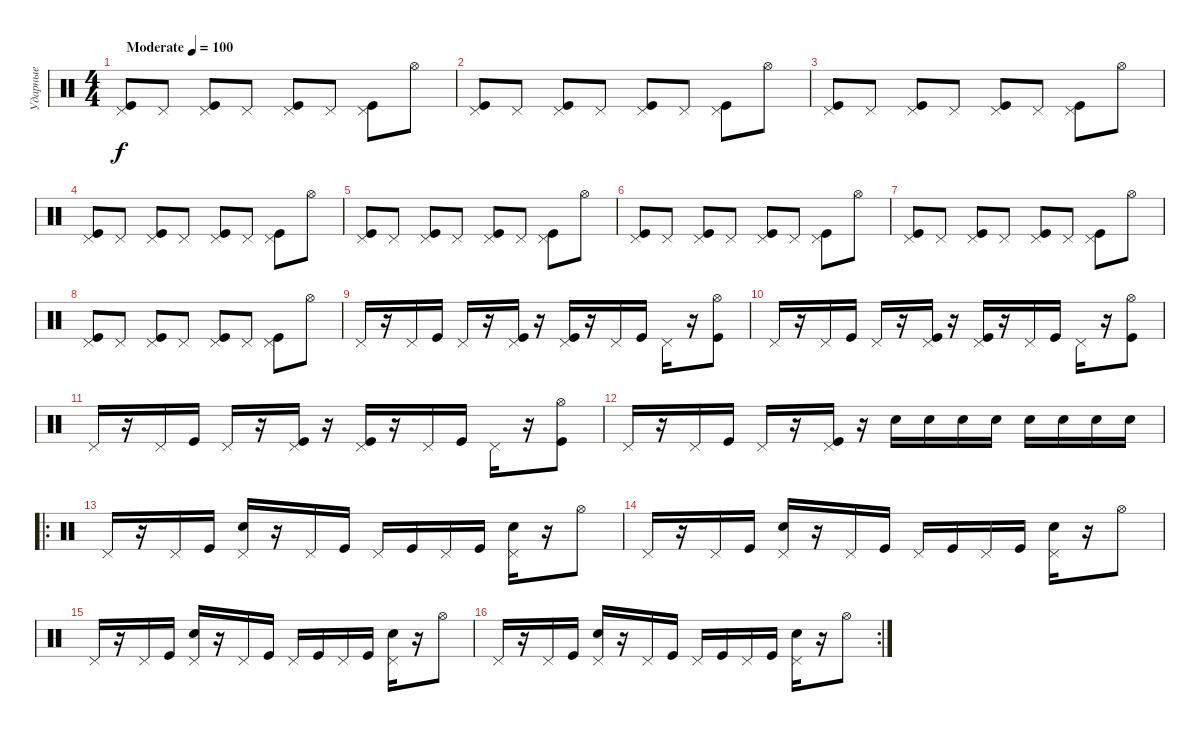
\track ("Ударные" "Ударные") {instrument percussion}
\staff {score}
\articulation defaults
\ts (4 4)
\tempo (100 "Moderate")
\clef neutral
\ks c
("Kick (hit)" "Pedal Hi-Hat (hit)").8{dy f} "Pedal Hi-Hat (hit)".8 ("Kick (hit)" "Pedal Hi-Hat (hit)").8 "Pedal Hi-Hat (hit)".8 ("Kick (hit)" "Pedal Hi-Hat (hit)").8 "Pedal Hi-Hat (hit)".8 ("Kick (hit)" "Pedal Hi-Hat (hit)").8 "Hi-Hat (open)".8 |
("Kick (hit)" "Pedal Hi-Hat (hit)").8 "Pedal Hi-Hat (hit)".8 ("Kick (hit)" "Pedal Hi-Hat (hit)").8 "Pedal Hi-Hat (hit)".8 ("Kick (hit)" "Pedal Hi-Hat (hit)").8 "Pedal Hi-Hat (hit)".8 ("Kick (hit)" "Pedal Hi-Hat (hit)").8 "Hi-Hat (open)".8 |
("Kick (hit)" "Pedal Hi-Hat (hit)").8 "Pedal Hi-Hat (hit)".8 ("Kick (hit)" "Pedal Hi-Hat (hit)").8 "Pedal Hi-Hat (hit)".8 ("Kick (hit)" "Pedal Hi-Hat (hit)").8 "Pedal Hi-Hat (hit)".8 ("Kick (hit)" "Pedal Hi-Hat (hit)").8 "Hi-Hat (open)".8 |
("Kick (hit)" "Pedal Hi-Hat (hit)").8 "Pedal Hi-Hat (hit)".8 ("Kick (hit)" "Pedal Hi-Hat (hit)").8 "Pedal Hi-Hat (hit)".8 ("Kick (hit)" "Pedal Hi-Hat (hit)").8 "Pedal Hi-Hat (hit)".8 ("Kick (hit)" "Pedal Hi-Hat (hit)").8 "Hi-Hat (open)".8 |
("Kick (hit)" "Pedal Hi-Hat (hit)").8 "Pedal Hi-Hat (hit)".8 ("Kick (hit)" "Pedal Hi-Hat (hit)").8 "Pedal Hi-Hat (hit)".8 ("Kick (hit)" "Pedal Hi-Hat (hit)").8 "Pedal Hi-Hat (hit)".8 ("Kick (hit)" "Pedal Hi-Hat (hit)").8 "Hi-Hat (open)".8 |
("Kick (hit)" "Pedal Hi-Hat (hit)").8 "Pedal Hi-Hat (hit)".8 ("Kick (hit)" "Pedal Hi-Hat (hit)").8 "Pedal Hi-Hat (hit)".8 ("Kick (hit)" "Pedal Hi-Hat (hit)").8 "Pedal Hi-Hat (hit)".8 ("Kick (hit)" "Pedal Hi-Hat (hit)").8 "Hi-Hat (open)".8 |
("Kick (hit)" "Pedal Hi-Hat (hit)").8 "Pedal Hi-Hat (hit)".8 ("Kick (hit)" "Pedal Hi-Hat (hit)").8 "Pedal Hi-Hat (hit)".8 ("Kick (hit)" "Pedal Hi-Hat (hit)").8 "Pedal Hi-Hat (hit)".8 ("Kick (hit)" "Pedal Hi-Hat (hit)").8 "Hi-Hat (open)".8 |
("Kick (hit)" "Pedal Hi-Hat (hit)").8 "Pedal Hi-Hat (hit)".8 ("Kick (hit)" "Pedal Hi-Hat (hit)").8 "Pedal Hi-Hat (hit)".8 ("Kick (hit)" "Pedal Hi-Hat (hit)").8 "Pedal Hi-Hat (hit)".8 ("Kick (hit)" "Pedal Hi-Hat (hit)").8 "Hi-Hat (open)".8 |
"Pedal Hi-Hat (hit)".16 r.16 "Pedal Hi-Hat (hit)".16 "Kick (hit)".16 "Pedal Hi-Hat (hit)".16 r.16 ("Kick (hit)" "Pedal Hi-Hat (hit)").16 r.16 ("Kick (hit)" "Pedal Hi-Hat (hit)").16 r.16 "Pedal Hi-Hat (hit)".16 "Kick (hit)".16 "Pedal Hi-Hat (hit)".16 r.16 ("Hi-Hat (open)" "Kick (hit)").8 |
"Pedal Hi-Hat (hit)".16 r.16 "Pedal Hi-Hat (hit)".16 "Kick (hit)".16 "Pedal Hi-Hat (hit)".16 r.16 ("Kick (hit)" "Pedal Hi-Hat (hit)").16 r.16 ("Kick (hit)" "Pedal Hi-Hat (hit)").16 r.16 "Pedal Hi-Hat (hit)".16 "Kick (hit)".16 "Pedal Hi-Hat (hit)".16 r.16 ("Hi-Hat (open)" "Kick (hit)").8 |
"Pedal Hi-Hat (hit)".16 r.16 "Pedal Hi-Hat (hit)".16 "Kick (hit)".16 "Pedal Hi-Hat (hit)".16 r.16 ("Kick (hit)" "Pedal Hi-Hat (hit)").16 r.16 ("Kick (hit)" "Pedal Hi-Hat (hit)").16 r.16 "Pedal Hi-Hat (hit)".16 "Kick (hit)".16 "Pedal Hi-Hat (hit)".16 r.16 ("Hi-Hat (open)" "Kick (hit)").8 |
"Pedal Hi-Hat (hit)".16 r.16 "Pedal Hi-Hat (hit)".16 "Kick (hit)".16 "Pedal Hi-Hat (hit)".16 r.16 ("Kick (hit)" "Pedal Hi-Hat (hit)").16 r.16 "Electric Snare (hit)".16 "Electric Snare (hit)".16 "Electric Snare (hit)".16 "Electric Snare (hit)".16 "Electric Snare (hit)".16 "Electric Snare (hit)".16 "Electric Snare (hit)".16 "Electric Snare (hit)".16 |
\ro "Pedal Hi-Hat (hit)".16
r.16 "Pedal Hi-Hat (hit)".16 "Kick (hit)".16 ("Electric Snare (hit)" "Pedal Hi-Hat (hit)").16 r.16 "Pedal Hi-Hat (hit)".16 "Kick (hit)".16 "Pedal Hi-Hat (hit)".16 "Kick (hit)".16 "Pedal Hi-Hat (hit)".16 "Kick (hit)".16 ("Electric Snare (hit)" "Pedal Hi-Hat (hit)").16 r.16 "Hi-Hat (open)".8 |
"Pedal Hi-Hat (hit)".16 r.16 "Pedal Hi-Hat (hit)".16 "Kick (hit)".16 ("Electric Snare (hit)" "Pedal Hi-Hat (hit)").16 r.16 "Pedal Hi-Hat (hit)".16 "Kick (hit)".16 "Pedal Hi-Hat (hit)".16 "Kick (hit)".16 "Pedal Hi-Hat (hit)".16 "Kick (hit)".16 ("Electric Snare (hit)" "Pedal Hi-Hat (hit)").16 r.16 "Hi-Hat (open)".8 |
"Pedal Hi-Hat (hit)".16 r.16 "Pedal Hi-Hat (hit)".16 "Kick (hit)".16 ("Electric Snare (hit)" "Pedal Hi-Hat (hit)").16 r.16 "Pedal Hi-Hat (hit)".16 "Kick (hit)".16 "Pedal Hi-Hat (hit)".16 "Kick (hit)".16 "Pedal Hi-Hat (hit)".16 "Kick (hit)".16 ("Electric Snare (hit)" "Pedal Hi-Hat (hit)").16 r.16 "Hi-Hat (open)".8 |
\rc 2 "Pedal Hi-Hat (hit)".16
r.16 "Pedal Hi-Hat (hit)".16 "Kick (hit)".16 ("Electric Snare (hit)" "Pedal Hi-Hat (hit)").16 r.16 "Pedal Hi-Hat (hit)".16 "Kick (hit)".16 "Pedal Hi-Hat (hit)".16 "Kick (hit)".16 "Pedal Hi-Hat (hit)".16 "Kick (hit)".16 ("Electric Snare (hit)" "Pedal Hi-Hat (hit)").16 r.16 "Hi-Hat (open)".8
